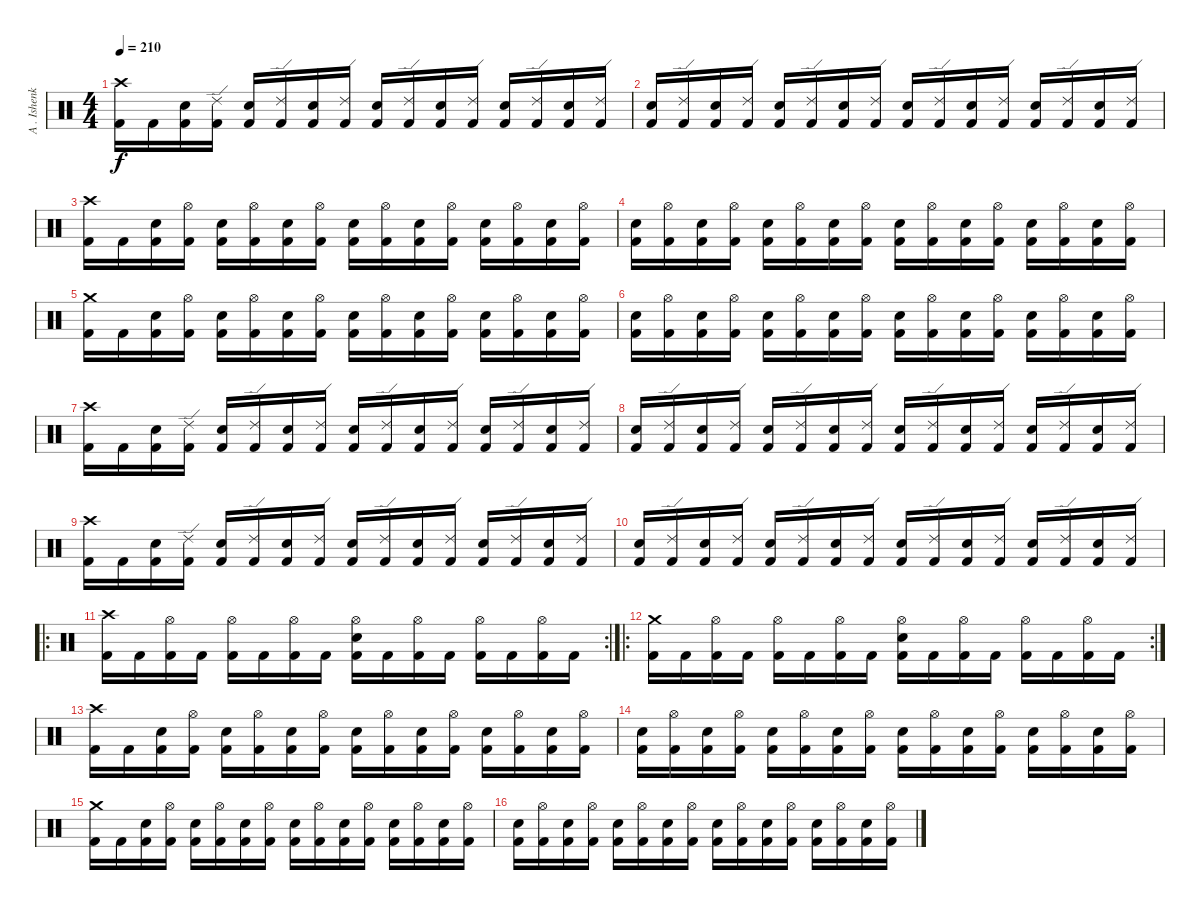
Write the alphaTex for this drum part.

\track ("A . Ishenko" "A . Ishenk") {instrument percussion}
\staff {score}
\articulation defaults
\ts (4 4)
\tempo 210
\clef neutral
\ks c
("Crash high (hit)" "Kick (hit) 2").16{dy f} "Kick (hit) 2".16 ("Electric Snare (hit)" "Kick (hit) 2").16 ("Ride (edge) 2" "Kick (hit) 2").16 ("Electric Snare (hit)" "Kick (hit) 2").16 ("Ride (edge) 2" "Kick (hit) 2").16 ("Electric Snare (hit)" "Kick (hit) 2").16 ("Ride (edge) 2" "Kick (hit) 2").16 ("Electric Snare (hit)" "Kick (hit) 2").16 ("Ride (edge) 2" "Kick (hit) 2").16 ("Electric Snare (hit)" "Kick (hit) 2").16 ("Ride (edge) 2" "Kick (hit) 2").16 ("Electric Snare (hit)" "Kick (hit) 2").16 ("Ride (edge) 2" "Kick (hit) 2").16 ("Electric Snare (hit)" "Kick (hit) 2").16 ("Ride (edge) 2" "Kick (hit) 2").16 |
("Electric Snare (hit)" "Kick (hit) 2").16 ("Ride (edge) 2" "Kick (hit) 2").16 ("Electric Snare (hit)" "Kick (hit) 2").16 ("Ride (edge) 2" "Kick (hit) 2").16 ("Electric Snare (hit)" "Kick (hit) 2").16 ("Ride (edge) 2" "Kick (hit) 2").16 ("Electric Snare (hit)" "Kick (hit) 2").16 ("Ride (edge) 2" "Kick (hit) 2").16 ("Electric Snare (hit)" "Kick (hit) 2").16 ("Ride (edge) 2" "Kick (hit) 2").16 ("Electric Snare (hit)" "Kick (hit) 2").16 ("Ride (edge) 2" "Kick (hit) 2").16 ("Electric Snare (hit)" "Kick (hit) 2").16 ("Ride (edge) 2" "Kick (hit) 2").16 ("Electric Snare (hit)" "Kick (hit) 2").16 ("Ride (edge) 2" "Kick (hit) 2").16 |
("Crash high (hit)" "Kick (hit) 2").16 "Kick (hit) 2".16 ("Electric Snare (hit)" "Kick (hit) 2").16 ("Hi-Hat (open)" "Kick (hit) 2").16 ("Electric Snare (hit)" "Kick (hit) 2").16 ("Hi-Hat (open)" "Kick (hit) 2").16 ("Electric Snare (hit)" "Kick (hit) 2").16 ("Hi-Hat (open)" "Kick (hit) 2").16 ("Electric Snare (hit)" "Kick (hit) 2").16 ("Hi-Hat (open)" "Kick (hit) 2").16 ("Electric Snare (hit)" "Kick (hit) 2").16 ("Hi-Hat (open)" "Kick (hit) 2").16 ("Electric Snare (hit)" "Kick (hit) 2").16 ("Hi-Hat (open)" "Kick (hit) 2").16 ("Electric Snare (hit)" "Kick (hit) 2").16 ("Hi-Hat (open)" "Kick (hit) 2").16 |
("Electric Snare (hit)" "Kick (hit) 2").16 ("Hi-Hat (open)" "Kick (hit) 2").16 ("Electric Snare (hit)" "Kick (hit) 2").16 ("Hi-Hat (open)" "Kick (hit) 2").16 ("Electric Snare (hit)" "Kick (hit) 2").16 ("Hi-Hat (open)" "Kick (hit) 2").16 ("Electric Snare (hit)" "Kick (hit) 2").16 ("Hi-Hat (open)" "Kick (hit) 2").16 ("Electric Snare (hit)" "Kick (hit) 2").16 ("Hi-Hat (open)" "Kick (hit) 2").16 ("Electric Snare (hit)" "Kick (hit) 2").16 ("Hi-Hat (open)" "Kick (hit) 2").16 ("Electric Snare (hit)" "Kick (hit) 2").16 ("Hi-Hat (open)" "Kick (hit) 2").16 ("Electric Snare (hit)" "Kick (hit) 2").16 ("Hi-Hat (open)" "Kick (hit) 2").16 |
("Crash medium (hit)" "Kick (hit) 2").16 "Kick (hit) 2".16 ("Electric Snare (hit)" "Kick (hit) 2").16 ("Hi-Hat (open)" "Kick (hit) 2").16 ("Electric Snare (hit)" "Kick (hit) 2").16 ("Hi-Hat (open)" "Kick (hit) 2").16 ("Electric Snare (hit)" "Kick (hit) 2").16 ("Hi-Hat (open)" "Kick (hit) 2").16 ("Electric Snare (hit)" "Kick (hit) 2").16 ("Hi-Hat (open)" "Kick (hit) 2").16 ("Electric Snare (hit)" "Kick (hit) 2").16 ("Hi-Hat (open)" "Kick (hit) 2").16 ("Electric Snare (hit)" "Kick (hit) 2").16 ("Hi-Hat (open)" "Kick (hit) 2").16 ("Electric Snare (hit)" "Kick (hit) 2").16 ("Hi-Hat (open)" "Kick (hit) 2").16 |
("Electric Snare (hit)" "Kick (hit) 2").16 ("Hi-Hat (open)" "Kick (hit) 2").16 ("Electric Snare (hit)" "Kick (hit) 2").16 ("Hi-Hat (open)" "Kick (hit) 2").16 ("Electric Snare (hit)" "Kick (hit) 2").16 ("Hi-Hat (open)" "Kick (hit) 2").16 ("Electric Snare (hit)" "Kick (hit) 2").16 ("Hi-Hat (open)" "Kick (hit) 2").16 ("Electric Snare (hit)" "Kick (hit) 2").16 ("Hi-Hat (open)" "Kick (hit) 2").16 ("Electric Snare (hit)" "Kick (hit) 2").16 ("Hi-Hat (open)" "Kick (hit) 2").16 ("Electric Snare (hit)" "Kick (hit) 2").16 ("Hi-Hat (open)" "Kick (hit) 2").16 ("Electric Snare (hit)" "Kick (hit) 2").16 ("Hi-Hat (open)" "Kick (hit) 2").16 |
("Crash high (hit)" "Kick (hit) 2").16 "Kick (hit) 2".16 ("Electric Snare (hit)" "Kick (hit) 2").16 ("Ride (edge) 2" "Kick (hit) 2").16 ("Electric Snare (hit)" "Kick (hit) 2").16 ("Ride (edge) 2" "Kick (hit) 2").16 ("Electric Snare (hit)" "Kick (hit) 2").16 ("Ride (edge) 2" "Kick (hit) 2").16 ("Electric Snare (hit)" "Kick (hit) 2").16 ("Ride (edge) 2" "Kick (hit) 2").16 ("Electric Snare (hit)" "Kick (hit) 2").16 ("Ride (edge) 2" "Kick (hit) 2").16 ("Electric Snare (hit)" "Kick (hit) 2").16 ("Ride (edge) 2" "Kick (hit) 2").16 ("Electric Snare (hit)" "Kick (hit) 2").16 ("Ride (edge) 2" "Kick (hit) 2").16 |
("Electric Snare (hit)" "Kick (hit) 2").16 ("Ride (edge) 2" "Kick (hit) 2").16 ("Electric Snare (hit)" "Kick (hit) 2").16 ("Ride (edge) 2" "Kick (hit) 2").16 ("Electric Snare (hit)" "Kick (hit) 2").16 ("Ride (edge) 2" "Kick (hit) 2").16 ("Electric Snare (hit)" "Kick (hit) 2").16 ("Ride (edge) 2" "Kick (hit) 2").16 ("Electric Snare (hit)" "Kick (hit) 2").16 ("Ride (edge) 2" "Kick (hit) 2").16 ("Electric Snare (hit)" "Kick (hit) 2").16 ("Ride (edge) 2" "Kick (hit) 2").16 ("Electric Snare (hit)" "Kick (hit) 2").16 ("Ride (edge) 2" "Kick (hit) 2").16 ("Electric Snare (hit)" "Kick (hit) 2").16 ("Ride (edge) 2" "Kick (hit) 2").16 |
("Crash high (hit)" "Kick (hit) 2").16 "Kick (hit) 2".16 ("Electric Snare (hit)" "Kick (hit) 2").16 ("Ride (edge) 2" "Kick (hit) 2").16 ("Electric Snare (hit)" "Kick (hit) 2").16 ("Ride (edge) 2" "Kick (hit) 2").16 ("Electric Snare (hit)" "Kick (hit) 2").16 ("Ride (edge) 2" "Kick (hit) 2").16 ("Electric Snare (hit)" "Kick (hit) 2").16 ("Ride (edge) 2" "Kick (hit) 2").16 ("Electric Snare (hit)" "Kick (hit) 2").16 ("Ride (edge) 2" "Kick (hit) 2").16 ("Electric Snare (hit)" "Kick (hit) 2").16 ("Ride (edge) 2" "Kick (hit) 2").16 ("Electric Snare (hit)" "Kick (hit) 2").16 ("Ride (edge) 2" "Kick (hit) 2").16 |
("Electric Snare (hit)" "Kick (hit) 2").16 ("Ride (edge) 2" "Kick (hit) 2").16 ("Electric Snare (hit)" "Kick (hit) 2").16 ("Ride (edge) 2" "Kick (hit) 2").16 ("Electric Snare (hit)" "Kick (hit) 2").16 ("Ride (edge) 2" "Kick (hit) 2").16 ("Electric Snare (hit)" "Kick (hit) 2").16 ("Ride (edge) 2" "Kick (hit) 2").16 ("Electric Snare (hit)" "Kick (hit) 2").16 ("Ride (edge) 2" "Kick (hit) 2").16 ("Electric Snare (hit)" "Kick (hit) 2").16 ("Ride (edge) 2" "Kick (hit) 2").16 ("Electric Snare (hit)" "Kick (hit) 2").16 ("Ride (edge) 2" "Kick (hit) 2").16 ("Electric Snare (hit)" "Kick (hit) 2").16 ("Ride (edge) 2" "Kick (hit) 2").16 |
\ro
\rc 2
("Crash high (hit)" "Kick (hit) 2").16 "Kick (hit) 2".16 ("Hi-Hat (open)" "Kick (hit) 2").16 "Kick (hit) 2".16 ("Hi-Hat (open)" "Kick (hit) 2").16 "Kick (hit) 2".16 ("Hi-Hat (open)" "Kick (hit) 2").16 "Kick (hit) 2".16 ("Hi-Hat (open)" "Electric Snare (hit)" "Kick (hit) 2").16 "Kick (hit) 2".16 ("Hi-Hat (open)" "Kick (hit) 2").16 "Kick (hit) 2".16 ("Hi-Hat (open)" "Kick (hit) 2").16 "Kick (hit) 2".16 ("Hi-Hat (open)" "Kick (hit) 2").16 "Kick (hit) 2".16 |
\ro
\rc 2
("Crash medium (hit)" "Kick (hit) 2").16 "Kick (hit) 2".16 ("Hi-Hat (open)" "Kick (hit) 2").16 "Kick (hit) 2".16 ("Hi-Hat (open)" "Kick (hit) 2").16 "Kick (hit) 2".16 ("Hi-Hat (open)" "Kick (hit) 2").16 "Kick (hit) 2".16 ("Hi-Hat (open)" "Electric Snare (hit)" "Kick (hit) 2").16 "Kick (hit) 2".16 ("Hi-Hat (open)" "Kick (hit) 2").16 "Kick (hit) 2".16 ("Hi-Hat (open)" "Kick (hit) 2").16 "Kick (hit) 2".16 ("Hi-Hat (open)" "Kick (hit) 2").16 "Kick (hit) 2".16 |
("Crash high (hit)" "Kick (hit) 2").16 "Kick (hit) 2".16 ("Electric Snare (hit)" "Kick (hit) 2").16 ("Hi-Hat (open)" "Kick (hit) 2").16 ("Electric Snare (hit)" "Kick (hit) 2").16 ("Hi-Hat (open)" "Kick (hit) 2").16 ("Electric Snare (hit)" "Kick (hit) 2").16 ("Hi-Hat (open)" "Kick (hit) 2").16 ("Electric Snare (hit)" "Kick (hit) 2").16 ("Hi-Hat (open)" "Kick (hit) 2").16 ("Electric Snare (hit)" "Kick (hit) 2").16 ("Hi-Hat (open)" "Kick (hit) 2").16 ("Electric Snare (hit)" "Kick (hit) 2").16 ("Hi-Hat (open)" "Kick (hit) 2").16 ("Electric Snare (hit)" "Kick (hit) 2").16 ("Hi-Hat (open)" "Kick (hit) 2").16 |
("Electric Snare (hit)" "Kick (hit) 2").16 ("Hi-Hat (open)" "Kick (hit) 2").16 ("Electric Snare (hit)" "Kick (hit) 2").16 ("Hi-Hat (open)" "Kick (hit) 2").16 ("Electric Snare (hit)" "Kick (hit) 2").16 ("Hi-Hat (open)" "Kick (hit) 2").16 ("Electric Snare (hit)" "Kick (hit) 2").16 ("Hi-Hat (open)" "Kick (hit) 2").16 ("Electric Snare (hit)" "Kick (hit) 2").16 ("Hi-Hat (open)" "Kick (hit) 2").16 ("Electric Snare (hit)" "Kick (hit) 2").16 ("Hi-Hat (open)" "Kick (hit) 2").16 ("Electric Snare (hit)" "Kick (hit) 2").16 ("Hi-Hat (open)" "Kick (hit) 2").16 ("Electric Snare (hit)" "Kick (hit) 2").16 ("Hi-Hat (open)" "Kick (hit) 2").16 |
("Crash medium (hit)" "Kick (hit) 2").16 "Kick (hit) 2".16 ("Electric Snare (hit)" "Kick (hit) 2").16 ("Hi-Hat (open)" "Kick (hit) 2").16 ("Electric Snare (hit)" "Kick (hit) 2").16 ("Hi-Hat (open)" "Kick (hit) 2").16 ("Electric Snare (hit)" "Kick (hit) 2").16 ("Hi-Hat (open)" "Kick (hit) 2").16 ("Electric Snare (hit)" "Kick (hit) 2").16 ("Hi-Hat (open)" "Kick (hit) 2").16 ("Electric Snare (hit)" "Kick (hit) 2").16 ("Hi-Hat (open)" "Kick (hit) 2").16 ("Electric Snare (hit)" "Kick (hit) 2").16 ("Hi-Hat (open)" "Kick (hit) 2").16 ("Electric Snare (hit)" "Kick (hit) 2").16 ("Hi-Hat (open)" "Kick (hit) 2").16 |
("Electric Snare (hit)" "Kick (hit) 2").16 ("Hi-Hat (open)" "Kick (hit) 2").16 ("Electric Snare (hit)" "Kick (hit) 2").16 ("Hi-Hat (open)" "Kick (hit) 2").16 ("Electric Snare (hit)" "Kick (hit) 2").16 ("Hi-Hat (open)" "Kick (hit) 2").16 ("Electric Snare (hit)" "Kick (hit) 2").16 ("Hi-Hat (open)" "Kick (hit) 2").16 ("Electric Snare (hit)" "Kick (hit) 2").16 ("Hi-Hat (open)" "Kick (hit) 2").16 ("Electric Snare (hit)" "Kick (hit) 2").16 ("Hi-Hat (open)" "Kick (hit) 2").16 ("Electric Snare (hit)" "Kick (hit) 2").16 ("Hi-Hat (open)" "Kick (hit) 2").16 ("Electric Snare (hit)" "Kick (hit) 2").16 ("Hi-Hat (open)" "Kick (hit) 2").16
